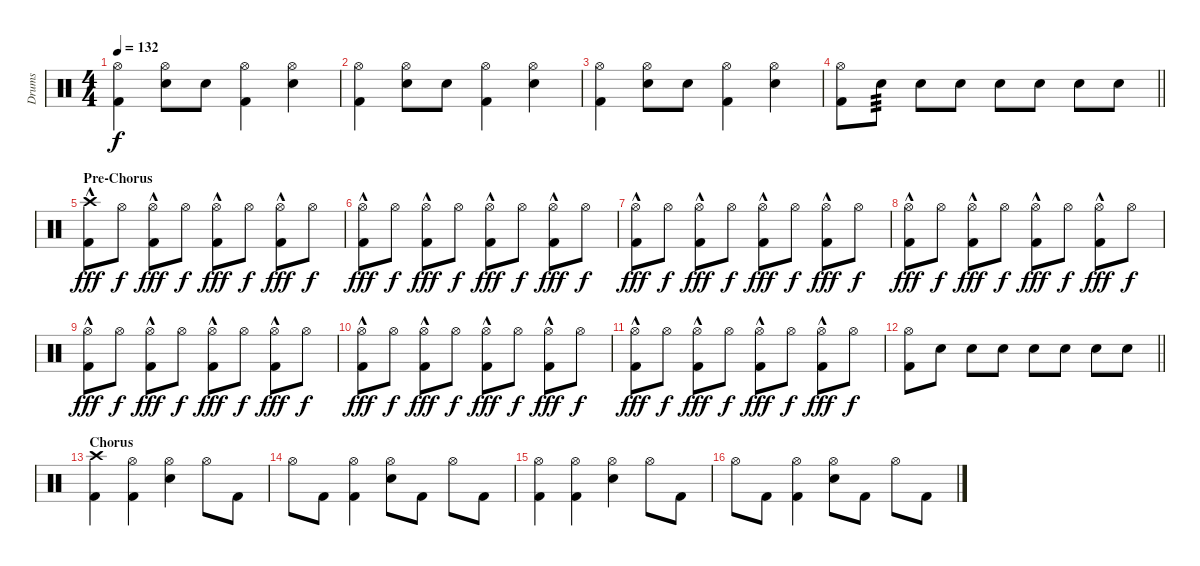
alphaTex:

\track ("Drums" "Drums") {instrument percussion}
\staff {score}
\articulation defaults
\ts (4 4)
\tempo 132
\clef neutral
\ks c
("Hi-Hat (open)" "Kick (hit) 2").4{dy f} ("Hi-Hat (open)" "Electric Snare (hit)").8 "Electric Snare (hit)".8 ("Hi-Hat (open)" "Kick (hit) 2").4 ("Hi-Hat (open)" "Electric Snare (hit)").4 |
("Hi-Hat (open)" "Kick (hit) 2").4 ("Hi-Hat (open)" "Electric Snare (hit)").8 "Electric Snare (hit)".8 ("Hi-Hat (open)" "Kick (hit) 2").4 ("Hi-Hat (open)" "Electric Snare (hit)").4 |
("Hi-Hat (open)" "Kick (hit) 2").4 ("Hi-Hat (open)" "Electric Snare (hit)").8 "Electric Snare (hit)".8 ("Hi-Hat (open)" "Kick (hit) 2").4 ("Hi-Hat (open)" "Electric Snare (hit)").4 |
\barLineRight lightlight
("Hi-Hat (open)" "Kick (hit) 2").8 "Electric Snare (hit)".8{tp 3} "Electric Snare (hit)".8 "Electric Snare (hit)".8 "Electric Snare (hit)".8 "Electric Snare (hit)".8 "Electric Snare (hit)".8 "Electric Snare (hit)".8 |
\section ("" "Pre-Chorus")
("Crash high (hit)" "Kick (hit) 2"{hac}).8{dy fff} "Hi-Hat (open)".8{dy f volume 5} ("Hi-Hat (open)" "Kick (hit) 2"{hac}).8{dy fff} "Hi-Hat (open)".8{dy f} ("Hi-Hat (open)" "Kick (hit) 2"{hac}).8{dy fff} "Hi-Hat (open)".8{dy f} ("Hi-Hat (open)" "Kick (hit) 2"{hac}).8{dy fff} "Hi-Hat (open)".8{dy f} |
("Hi-Hat (open)" "Kick (hit) 2"{hac}).8{dy fff} "Hi-Hat (open)".8{dy f} ("Hi-Hat (open)" "Kick (hit) 2"{hac}).8{dy fff} "Hi-Hat (open)".8{dy f} ("Hi-Hat (open)" "Kick (hit) 2"{hac}).8{dy fff} "Hi-Hat (open)".8{dy f} ("Hi-Hat (open)" "Kick (hit) 2"{hac}).8{dy fff} "Hi-Hat (open)".8{dy f} |
("Hi-Hat (open)" "Kick (hit) 2"{hac}).8{dy fff} "Hi-Hat (open)".8{dy f} ("Hi-Hat (open)" "Kick (hit) 2"{hac}).8{dy fff} "Hi-Hat (open)".8{dy f} ("Hi-Hat (open)" "Kick (hit) 2"{hac}).8{dy fff} "Hi-Hat (open)".8{dy f} ("Hi-Hat (open)" "Kick (hit) 2"{hac}).8{dy fff} "Hi-Hat (open)".8{dy f} |
("Hi-Hat (open)" "Kick (hit) 2"{hac}).8{dy fff} "Hi-Hat (open)".8{dy f} ("Hi-Hat (open)" "Kick (hit) 2"{hac}).8{dy fff} "Hi-Hat (open)".8{dy f} ("Hi-Hat (open)" "Kick (hit) 2"{hac}).8{dy fff} "Hi-Hat (open)".8{dy f} ("Hi-Hat (open)" "Kick (hit) 2"{hac}).8{dy fff} "Hi-Hat (open)".8{dy f} |
("Hi-Hat (open)" "Kick (hit) 2"{hac}).8{dy fff} "Hi-Hat (open)".8{dy f} ("Hi-Hat (open)" "Kick (hit) 2"{hac}).8{dy fff} "Hi-Hat (open)".8{dy f} ("Hi-Hat (open)" "Kick (hit) 2"{hac}).8{dy fff} "Hi-Hat (open)".8{dy f} ("Hi-Hat (open)" "Kick (hit) 2"{hac}).8{dy fff} "Hi-Hat (open)".8{dy f} |
("Hi-Hat (open)" "Kick (hit) 2"{hac}).8{dy fff} "Hi-Hat (open)".8{dy f} ("Hi-Hat (open)" "Kick (hit) 2"{hac}).8{dy fff} "Hi-Hat (open)".8{dy f} ("Hi-Hat (open)" "Kick (hit) 2"{hac}).8{dy fff} "Hi-Hat (open)".8{dy f} ("Hi-Hat (open)" "Kick (hit) 2"{hac}).8{dy fff} "Hi-Hat (open)".8{dy f} |
("Hi-Hat (open)" "Kick (hit) 2"{hac}).8{dy fff} "Hi-Hat (open)".8{dy f} ("Hi-Hat (open)" "Kick (hit) 2"{hac}).8{dy fff} "Hi-Hat (open)".8{dy f} ("Hi-Hat (open)" "Kick (hit) 2"{hac}).8{dy fff} "Hi-Hat (open)".8{dy f} ("Hi-Hat (open)" "Kick (hit) 2"{hac}).8{dy fff} "Hi-Hat (open)".8{dy f volume 13} |
\barLineRight lightlight
("Hi-Hat (open)" "Kick (hit) 2").8 "Electric Snare (hit)".8 "Electric Snare (hit)".8 "Electric Snare (hit)".8 "Electric Snare (hit)".8 "Electric Snare (hit)".8 "Electric Snare (hit)".8 "Electric Snare (hit)".8 |
\section ("" "Chorus")
("Crash high (hit)" "Kick (hit) 2").4 ("Hi-Hat (open)" "Kick (hit) 2").4 ("Hi-Hat (open)" "Electric Snare (hit)").4 "Hi-Hat (open)".8 "Kick (hit) 2".8 |
"Hi-Hat (open)".8 "Kick (hit) 2".8 ("Hi-Hat (open)" "Kick (hit) 2").4 ("Hi-Hat (open)" "Electric Snare (hit)").8 "Kick (hit) 2".8 "Hi-Hat (open)".8 "Kick (hit) 2".8 |
("Hi-Hat (open)" "Kick (hit) 2").4 ("Hi-Hat (open)" "Kick (hit) 2").4 ("Hi-Hat (open)" "Electric Snare (hit)").4 "Hi-Hat (open)".8 "Kick (hit) 2".8 |
"Hi-Hat (open)".8 "Kick (hit) 2".8 ("Hi-Hat (open)" "Kick (hit) 2").4 ("Hi-Hat (open)" "Electric Snare (hit)").8 "Kick (hit) 2".8 "Hi-Hat (open)".8 "Kick (hit) 2".8
